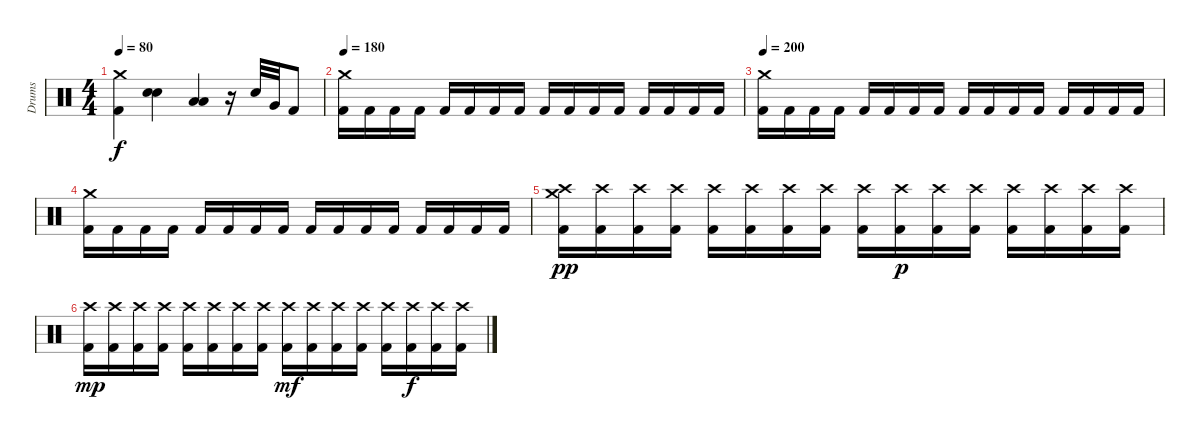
\track ("Drums" "Drums") {instrument percussion}
\staff {score}
\articulation defaults
\ts (4 4)
\tempo 80
\clef neutral
\ks c
("Crash medium (hit)" "Kick (hit) 2").4{dy f} ("Snare (hit) 2" "Snare (hit) 2").4{bu 240} ("Low Tom (hit)" "Low Tom (hit)").4{bu 240} r.16 "Snare (hit) 2".32 "Very Low Tom (hit)".32 "Kick (hit) 2".8 |
\tempo 180
("Crash medium (hit)" "Kick (hit) 2").16 "Kick (hit) 2".16 "Kick (hit) 2".16 "Kick (hit) 2".16 "Kick (hit) 2".16 "Kick (hit) 2".16 "Kick (hit) 2".16 "Kick (hit) 2".16 "Kick (hit) 2".16 "Kick (hit) 2".16 "Kick (hit) 2".16 "Kick (hit) 2".16 "Kick (hit) 2".16 "Kick (hit) 2".16 "Kick (hit) 2".16 "Kick (hit) 2".16 |
\tempo 200
("Crash medium (hit)" "Kick (hit) 2").16 "Kick (hit) 2".16 "Kick (hit) 2".16 "Kick (hit) 2".16 "Kick (hit) 2".16 "Kick (hit) 2".16 "Kick (hit) 2".16 "Kick (hit) 2".16 "Kick (hit) 2".16 "Kick (hit) 2".16 "Kick (hit) 2".16 "Kick (hit) 2".16 "Kick (hit) 2".16 "Kick (hit) 2".16 "Kick (hit) 2".16 "Kick (hit) 2".16 |
("Crash medium (hit)" "Kick (hit) 2").16 "Kick (hit) 2".16 "Kick (hit) 2".16 "Kick (hit) 2".16 "Kick (hit) 2".16 "Kick (hit) 2".16 "Kick (hit) 2".16 "Kick (hit) 2".16 "Kick (hit) 2".16 "Kick (hit) 2".16 "Kick (hit) 2".16 "Kick (hit) 2".16 "Kick (hit) 2".16 "Kick (hit) 2".16 "Kick (hit) 2".16 "Kick (hit) 2".16 |
("Crash medium (hit)" "Crash high (hit)" "Kick (hit) 2").16{dy pp} ("Crash high (hit)" "Kick (hit) 2").16 ("Crash high (hit)" "Kick (hit) 2").16 ("Crash high (hit)" "Kick (hit) 2").16 ("Crash high (hit)" "Kick (hit) 2").16 ("Crash high (hit)" "Kick (hit) 2").16 ("Crash high (hit)" "Kick (hit) 2").16 ("Crash high (hit)" "Kick (hit) 2").16 ("Crash high (hit)" "Kick (hit) 2").16 ("Crash high (hit)" "Kick (hit) 2").16{dy p} ("Crash high (hit)" "Kick (hit) 2").16 ("Crash high (hit)" "Kick (hit) 2").16 ("Crash high (hit)" "Kick (hit) 2").16 ("Crash high (hit)" "Kick (hit) 2").16 ("Crash high (hit)" "Kick (hit) 2").16 ("Crash high (hit)" "Kick (hit) 2").16 |
("Crash high (hit)" "Kick (hit) 2").16{dy mp} ("Crash high (hit)" "Kick (hit) 2").16 ("Crash high (hit)" "Kick (hit) 2").16 ("Crash high (hit)" "Kick (hit) 2").16 ("Crash high (hit)" "Kick (hit) 2").16 ("Crash high (hit)" "Kick (hit) 2").16 ("Crash high (hit)" "Kick (hit) 2").16 ("Crash high (hit)" "Kick (hit) 2").16 ("Crash high (hit)" "Kick (hit) 2").16{dy mf} ("Crash high (hit)" "Kick (hit) 2").16 ("Crash high (hit)" "Kick (hit) 2").16 ("Crash high (hit)" "Kick (hit) 2").16 ("Crash high (hit)" "Kick (hit) 2").16 ("Crash high (hit)" "Kick (hit) 2").16{dy f} ("Crash high (hit)" "Kick (hit) 2").16 ("Crash high (hit)" "Kick (hit) 2").16
